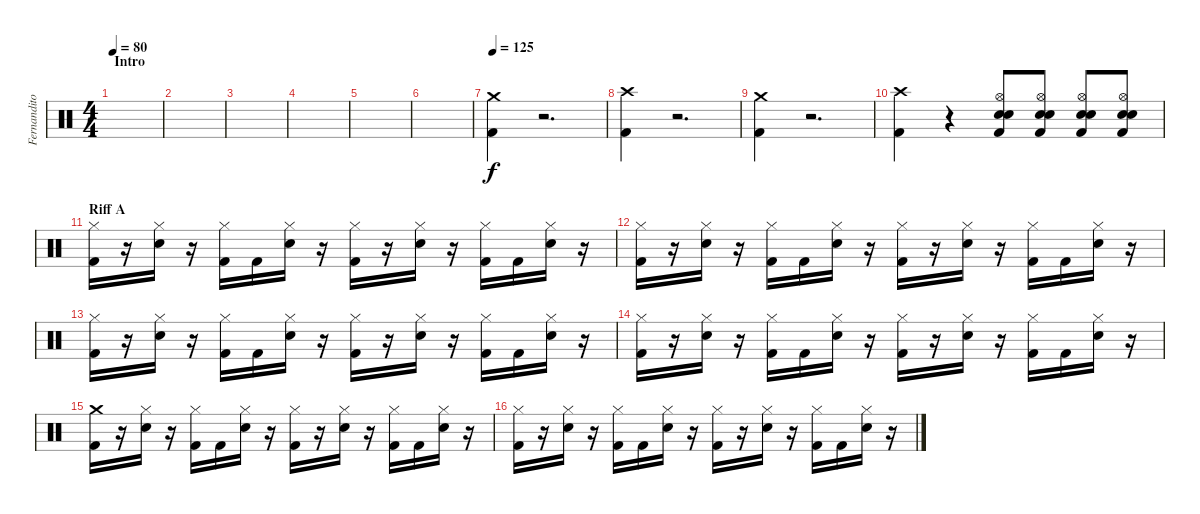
\track ("Fernandito" "Fernandito") {instrument percussion}
\staff {score}
\articulation defaults
\ts (4 4)
\section ("" "Intro")
\tempo 80
\clef neutral
\ks c
|
|
|
|
|
|
\tempo 125
("Crash medium (hit)" "Kick (hit) 2").4 r.2{d} |
("Crash high (hit)" "Kick (hit) 2").4 r.2{d} |
("Crash medium (hit)" "Kick (hit) 2").4 r.2{d} |
("Crash high (hit)" "Kick (hit) 2").4 r.4 ("Hi-Hat (open)" "Kick (hit) 2" "Snare (hit) 2" "Snare (hit) 2").8 ("Hi-Hat (open)" "Kick (hit) 2" "Snare (hit) 2" "Snare (hit) 2").8 ("Hi-Hat (open)" "Kick (hit) 2" "Snare (hit) 2" "Snare (hit) 2").8 ("Hi-Hat (open)" "Kick (hit) 2" "Snare (hit) 2" "Snare (hit) 2").8 |
\section ("" "Riff A")
("Hi-Hat (closed)" "Kick (hit) 2").16 r.16 ("Hi-Hat (closed)" "Snare (hit) 2").16 r.16 ("Hi-Hat (closed)" "Kick (hit) 2").16 "Kick (hit) 2".16 ("Hi-Hat (closed)" "Snare (hit) 2").16 r.16 ("Hi-Hat (closed)" "Kick (hit) 2").16 r.16 ("Hi-Hat (closed)" "Snare (hit) 2").16 r.16 ("Hi-Hat (closed)" "Kick (hit) 2").16 "Kick (hit) 2".16 ("Hi-Hat (closed)" "Snare (hit) 2").16 r.16 |
("Hi-Hat (closed)" "Kick (hit) 2").16 r.16 ("Hi-Hat (closed)" "Snare (hit) 2").16 r.16 ("Hi-Hat (closed)" "Kick (hit) 2").16 "Kick (hit) 2".16 ("Hi-Hat (closed)" "Snare (hit) 2").16 r.16 ("Hi-Hat (closed)" "Kick (hit) 2").16 r.16 ("Hi-Hat (closed)" "Snare (hit) 2").16 r.16 ("Hi-Hat (closed)" "Kick (hit) 2").16 "Kick (hit) 2".16 ("Hi-Hat (closed)" "Snare (hit) 2").16 r.16 |
("Hi-Hat (closed)" "Kick (hit) 2").16 r.16 ("Hi-Hat (closed)" "Snare (hit) 2").16 r.16 ("Hi-Hat (closed)" "Kick (hit) 2").16 "Kick (hit) 2".16 ("Hi-Hat (closed)" "Snare (hit) 2").16 r.16 ("Hi-Hat (closed)" "Kick (hit) 2").16 r.16 ("Hi-Hat (closed)" "Snare (hit) 2").16 r.16 ("Hi-Hat (closed)" "Kick (hit) 2").16 "Kick (hit) 2".16 ("Hi-Hat (closed)" "Snare (hit) 2").16 r.16 |
("Hi-Hat (closed)" "Kick (hit) 2").16 r.16 ("Hi-Hat (closed)" "Snare (hit) 2").16 r.16 ("Hi-Hat (closed)" "Kick (hit) 2").16 "Kick (hit) 2".16 ("Hi-Hat (closed)" "Snare (hit) 2").16 r.16 ("Hi-Hat (closed)" "Kick (hit) 2").16 r.16 ("Hi-Hat (closed)" "Snare (hit) 2").16 r.16 ("Hi-Hat (closed)" "Kick (hit) 2").16 "Kick (hit) 2".16 ("Hi-Hat (closed)" "Snare (hit) 2").16 r.16 |
("Crash medium (hit)" "Kick (hit) 2").16 r.16 ("Hi-Hat (closed)" "Snare (hit) 2").16 r.16 ("Hi-Hat (closed)" "Kick (hit) 2").16 "Kick (hit) 2".16 ("Hi-Hat (closed)" "Snare (hit) 2").16 r.16 ("Hi-Hat (closed)" "Kick (hit) 2").16 r.16 ("Hi-Hat (closed)" "Snare (hit) 2").16 r.16 ("Hi-Hat (closed)" "Kick (hit) 2").16 "Kick (hit) 2".16 ("Hi-Hat (closed)" "Snare (hit) 2").16 r.16 |
("Hi-Hat (closed)" "Kick (hit) 2").16 r.16 ("Hi-Hat (closed)" "Snare (hit) 2").16 r.16 ("Hi-Hat (closed)" "Kick (hit) 2").16 "Kick (hit) 2".16 ("Hi-Hat (closed)" "Snare (hit) 2").16 r.16 ("Hi-Hat (closed)" "Kick (hit) 2").16 r.16 ("Hi-Hat (closed)" "Snare (hit) 2").16 r.16 ("Hi-Hat (closed)" "Kick (hit) 2").16 "Kick (hit) 2".16 ("Hi-Hat (closed)" "Snare (hit) 2").16 r.16
